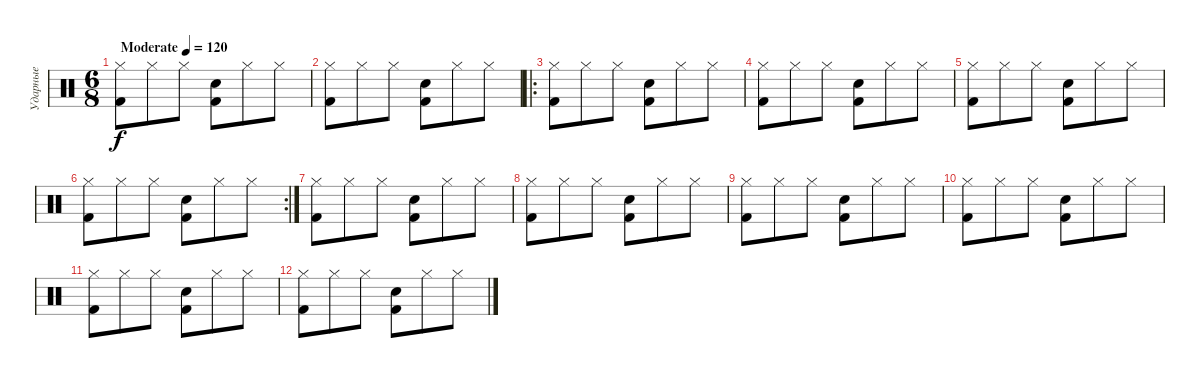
\track ("Ударные" "Ударные") {instrument percussion}
\staff {score}
\articulation defaults
\ts (6 8)
\tempo (120 "Moderate")
\clef neutral
\ks c
("Hi-Hat (closed)" "Kick (hit) 2").8{dy f} "Hi-Hat (closed)".8 "Hi-Hat (closed)".8 ("Snare (hit) 2" "Kick (hit) 2").8 "Hi-Hat (closed)".8 "Hi-Hat (closed)".8 |
("Hi-Hat (closed)" "Kick (hit) 2").8 "Hi-Hat (closed)".8 "Hi-Hat (closed)".8 ("Snare (hit) 2" "Kick (hit) 2").8 "Hi-Hat (closed)".8 "Hi-Hat (closed)".8 |
\ro
("Hi-Hat (closed)" "Kick (hit) 2").8 "Hi-Hat (closed)".8 "Hi-Hat (closed)".8 ("Snare (hit) 2" "Kick (hit) 2").8 "Hi-Hat (closed)".8 "Hi-Hat (closed)".8 |
("Hi-Hat (closed)" "Kick (hit) 2").8 "Hi-Hat (closed)".8 "Hi-Hat (closed)".8 ("Snare (hit) 2" "Kick (hit) 2").8 "Hi-Hat (closed)".8 "Hi-Hat (closed)".8 |
("Hi-Hat (closed)" "Kick (hit) 2").8 "Hi-Hat (closed)".8 "Hi-Hat (closed)".8 ("Snare (hit) 2" "Kick (hit) 2").8 "Hi-Hat (closed)".8 "Hi-Hat (closed)".8 |
\rc 2
("Hi-Hat (closed)" "Kick (hit) 2").8 "Hi-Hat (closed)".8 "Hi-Hat (closed)".8 ("Snare (hit) 2" "Kick (hit) 2").8 "Hi-Hat (closed)".8 "Hi-Hat (closed)".8 |
("Hi-Hat (closed)" "Kick (hit) 2").8 "Hi-Hat (closed)".8 "Hi-Hat (closed)".8 ("Snare (hit) 2" "Kick (hit) 2").8 "Hi-Hat (closed)".8 "Hi-Hat (closed)".8 |
("Hi-Hat (closed)" "Kick (hit) 2").8 "Hi-Hat (closed)".8 "Hi-Hat (closed)".8 ("Snare (hit) 2" "Kick (hit) 2").8 "Hi-Hat (closed)".8 "Hi-Hat (closed)".8 |
("Hi-Hat (closed)" "Kick (hit) 2").8 "Hi-Hat (closed)".8 "Hi-Hat (closed)".8 ("Snare (hit) 2" "Kick (hit) 2").8 "Hi-Hat (closed)".8 "Hi-Hat (closed)".8 |
("Hi-Hat (closed)" "Kick (hit) 2").8 "Hi-Hat (closed)".8 "Hi-Hat (closed)".8 ("Snare (hit) 2" "Kick (hit) 2").8 "Hi-Hat (closed)".8 "Hi-Hat (closed)".8 |
("Hi-Hat (closed)" "Kick (hit) 2").8 "Hi-Hat (closed)".8 "Hi-Hat (closed)".8 ("Snare (hit) 2" "Kick (hit) 2").8 "Hi-Hat (closed)".8 "Hi-Hat (closed)".8 |
("Hi-Hat (closed)" "Kick (hit) 2").8 "Hi-Hat (closed)".8 "Hi-Hat (closed)".8 ("Snare (hit) 2" "Kick (hit) 2").8 "Hi-Hat (closed)".8 "Hi-Hat (closed)".8
